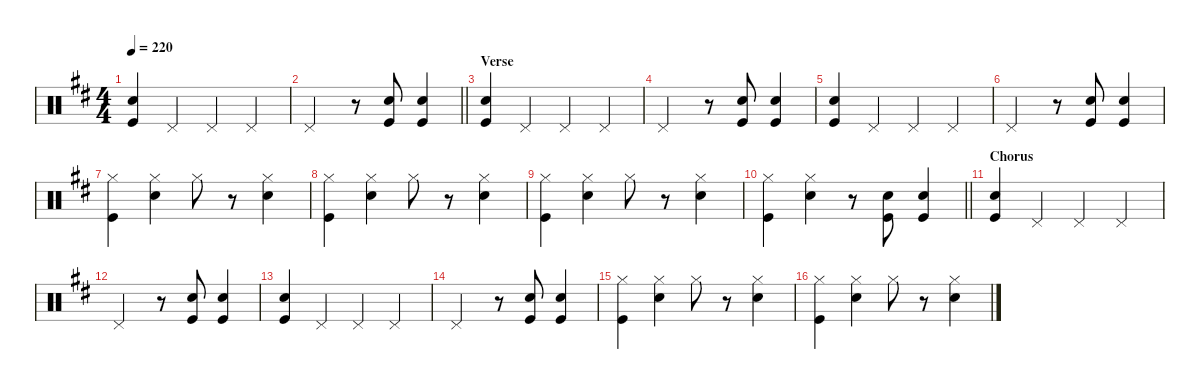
\defaultSystemsLayout 4
\hideDynamics
\bracketExtendMode nobrackets
\singleTrackTrackNamePolicy hidden
\multiTrackTrackNamePolicy hidden
\otherSystemsTrackNameOrientation horizontal
\track ("Charlie Watts" "drm.") {defaultSystemsLayout 8 instrument percussion}
\staff {score}
\articulation defaults
\ts (4 4)
\tempo 220
\clef neutral
\ks bminor
("Snare (hit) 2"{acc forcenatural} "Kick (hit)"{acc forcenatural}).4{dy ff beam Up} "Pedal Hi-Hat (hit)"{acc forcenatural}.4{beam Up} "Pedal Hi-Hat (hit)"{acc forcenatural}.4{beam Up} "Pedal Hi-Hat (hit)"{acc forcenatural}.4{beam Up} |
\barLineRight lightlight "Pedal Hi-Hat (hit)"{acc forcenatural}.2{beam Up}
r.8{beam Up} ("Snare (hit) 2"{acc forcenatural} "Kick (hit)"{acc forcenatural}).8{beam Up} ("Snare (hit) 2"{acc forcenatural} "Kick (hit)"{acc forcenatural}).4{beam Up} |
\section ("" "Verse")
("Snare (hit) 2"{acc forcenatural} "Kick (hit)"{acc forcenatural}).4{beam Up} "Pedal Hi-Hat (hit)"{acc forcenatural}.4{beam Up} "Pedal Hi-Hat (hit)"{acc forcenatural}.4{beam Up} "Pedal Hi-Hat (hit)"{acc forcenatural}.4{beam Up} |
"Pedal Hi-Hat (hit)"{acc forcenatural}.2{beam Up} r.8{beam Up} ("Snare (hit) 2"{acc forcenatural} "Kick (hit)"{acc forcenatural}).8{beam Up} ("Snare (hit) 2"{acc forcenatural} "Kick (hit)"{acc forcenatural}).4{beam Up} |
("Snare (hit) 2"{acc forcenatural} "Kick (hit)"{acc forcenatural}).4{beam Up} "Pedal Hi-Hat (hit)"{acc forcenatural}.4{beam Up} "Pedal Hi-Hat (hit)"{acc forcenatural}.4{beam Up} "Pedal Hi-Hat (hit)"{acc forcenatural}.4{beam Up} |
"Pedal Hi-Hat (hit)"{acc forcenatural}.2{beam Up} r.8{beam Up} ("Snare (hit) 2"{acc forcenatural} "Kick (hit)"{acc forcenatural}).8{beam Up} ("Snare (hit) 2"{acc forcenatural} "Kick (hit)"{acc forcenatural}).4{beam Up} |
("Hi-Hat (closed)"{acc forcenatural} "Kick (hit)"{acc forcenatural}).4{beam Down} ("Hi-Hat (closed)"{acc forcenatural} "Snare (hit) 2"{acc forcenatural}).4{beam Down} "Hi-Hat (closed)"{acc forcenatural}.8{beam Down} r.8{beam Down} ("Hi-Hat (closed)"{acc forcenatural} "Snare (hit) 2"{acc forcenatural}).4{beam Down} |
("Hi-Hat (closed)"{acc forcenatural} "Kick (hit)"{acc forcenatural}).4{beam Down} ("Hi-Hat (closed)"{acc forcenatural} "Snare (hit) 2"{acc forcenatural}).4{beam Down} "Hi-Hat (closed)"{acc forcenatural}.8{beam Down} r.8{beam Down} ("Hi-Hat (closed)"{acc forcenatural} "Snare (hit) 2"{acc forcenatural}).4{beam Down} |
("Hi-Hat (closed)"{acc forcenatural} "Kick (hit)"{acc forcenatural}).4{beam Down} ("Hi-Hat (closed)"{acc forcenatural} "Snare (hit) 2"{acc forcenatural}).4{beam Down} "Hi-Hat (closed)"{acc forcenatural}.8{beam Down} r.8{beam Down} ("Hi-Hat (closed)"{acc forcenatural} "Snare (hit) 2"{acc forcenatural}).4{beam Down} |
\barLineRight lightlight
("Hi-Hat (closed)"{acc forcenatural} "Kick (hit)"{acc forcenatural}).4{beam Down} ("Hi-Hat (closed)"{acc forcenatural} "Snare (hit) 2"{acc forcenatural}).4{beam Down} r.8{beam Down} ("Snare (hit) 2"{acc forcenatural} "Kick (hit)"{acc forcenatural}).8{beam Up} ("Snare (hit) 2"{acc forcenatural} "Kick (hit)"{acc forcenatural}).4{beam Up} |
\section ("" "Chorus")
("Snare (hit) 2"{acc forcenatural} "Kick (hit)"{acc forcenatural}).4{beam Up} "Pedal Hi-Hat (hit)"{acc forcenatural}.4{beam Up} "Pedal Hi-Hat (hit)"{acc forcenatural}.4{beam Up} "Pedal Hi-Hat (hit)"{acc forcenatural}.4{beam Up} |
"Pedal Hi-Hat (hit)"{acc forcenatural}.2{beam Up} r.8{beam Up} ("Snare (hit) 2"{acc forcenatural} "Kick (hit)"{acc forcenatural}).8{beam Up} ("Snare (hit) 2"{acc forcenatural} "Kick (hit)"{acc forcenatural}).4{beam Up} |
("Snare (hit) 2"{acc forcenatural} "Kick (hit)"{acc forcenatural}).4{beam Up} "Pedal Hi-Hat (hit)"{acc forcenatural}.4{beam Up} "Pedal Hi-Hat (hit)"{acc forcenatural}.4{beam Up} "Pedal Hi-Hat (hit)"{acc forcenatural}.4{beam Up} |
"Pedal Hi-Hat (hit)"{acc forcenatural}.2{beam Up} r.8{beam Up} ("Snare (hit) 2"{acc forcenatural} "Kick (hit)"{acc forcenatural}).8{beam Up} ("Snare (hit) 2"{acc forcenatural} "Kick (hit)"{acc forcenatural}).4{beam Up} |
("Hi-Hat (closed)"{acc forcenatural} "Kick (hit)"{acc forcenatural}).4{beam Down} ("Hi-Hat (closed)"{acc forcenatural} "Snare (hit) 2"{acc forcenatural}).4{beam Down} "Hi-Hat (closed)"{acc forcenatural}.8{beam Down} r.8{beam Down} ("Hi-Hat (closed)"{acc forcenatural} "Snare (hit) 2"{acc forcenatural}).4{beam Down} |
("Hi-Hat (closed)"{acc forcenatural} "Kick (hit)"{acc forcenatural}).4{beam Down} ("Hi-Hat (closed)"{acc forcenatural} "Snare (hit) 2"{acc forcenatural}).4{beam Down} "Hi-Hat (closed)"{acc forcenatural}.8{beam Down} r.8{beam Down} ("Hi-Hat (closed)"{acc forcenatural} "Snare (hit) 2"{acc forcenatural}).4{beam Down}
